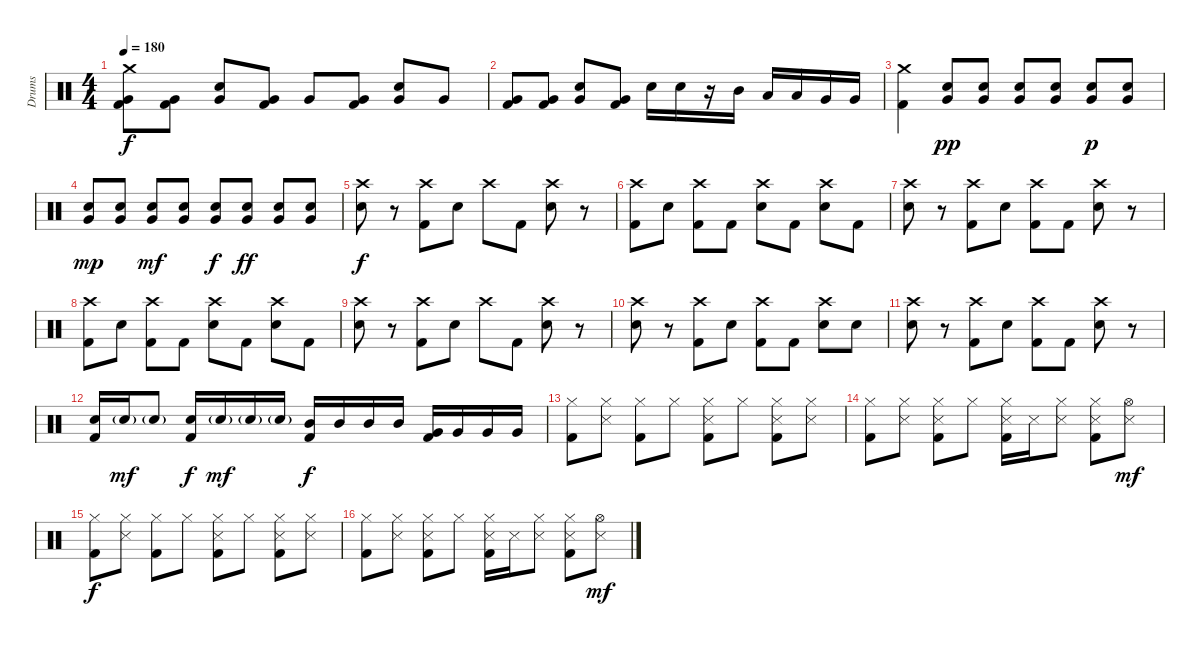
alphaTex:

\track ("Drums" "Drums") {instrument percussion}
\staff {score}
\articulation defaults
\ts (4 4)
\tempo 180
\clef neutral
\ks c
("Crash medium (hit)" "Very Low Tom (hit)" "Kick (hit) 2").8{dy f} ("Very Low Tom (hit)" "Kick (hit) 2").8 ("Electric Snare (hit)" "Very Low Tom (hit)").8 ("Very Low Tom (hit)" "Kick (hit) 2").8 "Very Low Tom (hit)".8 ("Very Low Tom (hit)" "Kick (hit) 2").8 ("Electric Snare (hit)" "Very Low Tom (hit)").8 "Very Low Tom (hit)".8 |
("Very Low Tom (hit)" "Kick (hit) 2").8 ("Very Low Tom (hit)" "Kick (hit) 2").8 ("Electric Snare (hit)" "Very Low Tom (hit)").8 ("Very Low Tom (hit)" "Kick (hit) 2").8 "Electric Snare (hit)".16 "Electric Snare (hit)".16 r.16 "Mid Tom (hit)".16 "Low Tom (hit)".16 "Low Tom (hit)".16 "Very Low Tom (hit)".16 "Very Low Tom (hit)".16 |
("Crash medium (hit)" "Kick (hit) 2").4 ("Very Low Tom (hit)" "Electric Snare (hit)").8{dy pp} ("Very Low Tom (hit)" "Electric Snare (hit)").8 ("Very Low Tom (hit)" "Electric Snare (hit)").8 ("Very Low Tom (hit)" "Electric Snare (hit)").8 ("Very Low Tom (hit)" "Electric Snare (hit)").8{dy p} ("Very Low Tom (hit)" "Electric Snare (hit)").8 |
("Very Low Tom (hit)" "Electric Snare (hit)").8{dy mp} ("Very Low Tom (hit)" "Electric Snare (hit)").8 ("Very Low Tom (hit)" "Electric Snare (hit)").8{dy mf} ("Very Low Tom (hit)" "Electric Snare (hit)").8 ("Very Low Tom (hit)" "Electric Snare (hit)").8{dy f} ("Very Low Tom (hit)" "Electric Snare (hit)").8{dy ff} ("Very Low Tom (hit)" "Electric Snare (hit)").8 ("Very Low Tom (hit)" "Electric Snare (hit)").8 |
("Crash high (hit)" "Electric Snare (hit)").8{dy f} r.8 ("Crash high (hit)" "Kick (hit) 2").8 "Electric Snare (hit)".8 "Crash high (hit)".8 "Kick (hit) 2".8 ("Crash high (hit)" "Electric Snare (hit)").8 r.8 |
("Crash high (hit)" "Kick (hit) 2").8 "Electric Snare (hit)".8 ("Crash high (hit)" "Kick (hit) 2").8 "Kick (hit) 2".8 ("Crash high (hit)" "Electric Snare (hit)").8 "Kick (hit) 2".8 ("Crash high (hit)" "Electric Snare (hit)").8 "Kick (hit) 2".8 |
("Crash high (hit)" "Electric Snare (hit)").8 r.8 ("Crash high (hit)" "Kick (hit) 2").8 "Electric Snare (hit)".8 ("Crash high (hit)" "Kick (hit) 2").8 "Kick (hit) 2".8 ("Crash high (hit)" "Electric Snare (hit)").8 r.8 |
("Crash high (hit)" "Kick (hit) 2").8 "Electric Snare (hit)".8 ("Crash high (hit)" "Kick (hit) 2").8 "Kick (hit) 2".8 ("Crash high (hit)" "Electric Snare (hit)").8 "Kick (hit) 2".8 ("Crash high (hit)" "Electric Snare (hit)").8 "Kick (hit) 2".8 |
("Crash high (hit)" "Electric Snare (hit)").8 r.8 ("Crash high (hit)" "Kick (hit) 2").8 "Electric Snare (hit)".8 "Crash high (hit)".8 "Kick (hit) 2".8 ("Crash high (hit)" "Electric Snare (hit)").8 r.8 |
("Crash high (hit)" "Electric Snare (hit)").8 r.8 ("Crash high (hit)" "Kick (hit) 2").8 "Electric Snare (hit)".8 ("Crash high (hit)" "Kick (hit) 2").8 "Kick (hit) 2".8 ("Crash high (hit)" "Electric Snare (hit)").8 "Electric Snare (hit)".8 |
("Crash high (hit)" "Electric Snare (hit)").8 r.8 ("Crash high (hit)" "Kick (hit) 2").8 "Electric Snare (hit)".8 ("Crash high (hit)" "Kick (hit) 2").8 "Kick (hit) 2".8 ("Crash high (hit)" "Electric Snare (hit)").8 r.8 |
("Electric Snare (hit)" "Kick (hit) 2").16 "Electric Snare (hit)"{g}.16{dy mf} "Electric Snare (hit)"{g}.8 ("Electric Snare (hit)" "Kick (hit) 2").16{dy f} "Electric Snare (hit)"{g}.16{dy mf} "Electric Snare (hit)"{g}.16 "Electric Snare (hit)"{g}.16 ("Mid Tom (hit)" "Kick (hit) 2").16{dy f} "Mid Tom (hit)".16 "Mid Tom (hit)".16 "Mid Tom (hit)".16 ("Very Low Tom (hit)" "Kick (hit) 2").16 "Very Low Tom (hit)".16 "Very Low Tom (hit)".16 "Very Low Tom (hit)".16 |
("Hi-Hat (closed)" "Kick (hit) 2").8 ("Hi-Hat (closed)" "Snare (side stick) 3").8 ("Hi-Hat (closed)" "Kick (hit) 2").8 "Hi-Hat (closed)".8 ("Hi-Hat (closed)" "Snare (side stick) 3" "Kick (hit) 2").8 "Hi-Hat (closed)".8 ("Hi-Hat (closed)" "Snare (side stick) 3" "Kick (hit) 2").8 ("Hi-Hat (closed)" "Snare (side stick) 3").8 |
("Hi-Hat (closed)" "Kick (hit) 2").8 ("Hi-Hat (closed)" "Snare (side stick) 3").8 ("Hi-Hat (closed)" "Snare (side stick) 3" "Kick (hit) 2").8 "Hi-Hat (closed)".8 ("Hi-Hat (closed)" "Snare (side stick) 3" "Kick (hit) 2").16 "Snare (side stick) 3".16 ("Hi-Hat (closed)" "Snare (side stick) 3").8 ("Hi-Hat (closed)" "Snare (side stick) 3" "Kick (hit) 2").8 ("Hi-Hat (open)" "Snare (side stick) 3").8{dy mf} |
("Hi-Hat (closed)" "Kick (hit) 2").8{dy f} ("Hi-Hat (closed)" "Snare (side stick) 3").8 ("Hi-Hat (closed)" "Kick (hit) 2").8 "Hi-Hat (closed)".8 ("Hi-Hat (closed)" "Snare (side stick) 3" "Kick (hit) 2").8 "Hi-Hat (closed)".8 ("Hi-Hat (closed)" "Snare (side stick) 3" "Kick (hit) 2").8 ("Hi-Hat (closed)" "Snare (side stick) 3").8 |
("Hi-Hat (closed)" "Kick (hit) 2").8 ("Hi-Hat (closed)" "Snare (side stick) 3").8 ("Hi-Hat (closed)" "Snare (side stick) 3" "Kick (hit) 2").8 "Hi-Hat (closed)".8 ("Hi-Hat (closed)" "Snare (side stick) 3" "Kick (hit) 2").16 "Snare (side stick) 3".16 ("Hi-Hat (closed)" "Snare (side stick) 3").8 ("Hi-Hat (closed)" "Snare (side stick) 3" "Kick (hit) 2").8 ("Hi-Hat (open)" "Snare (side stick) 3").8{dy mf}
